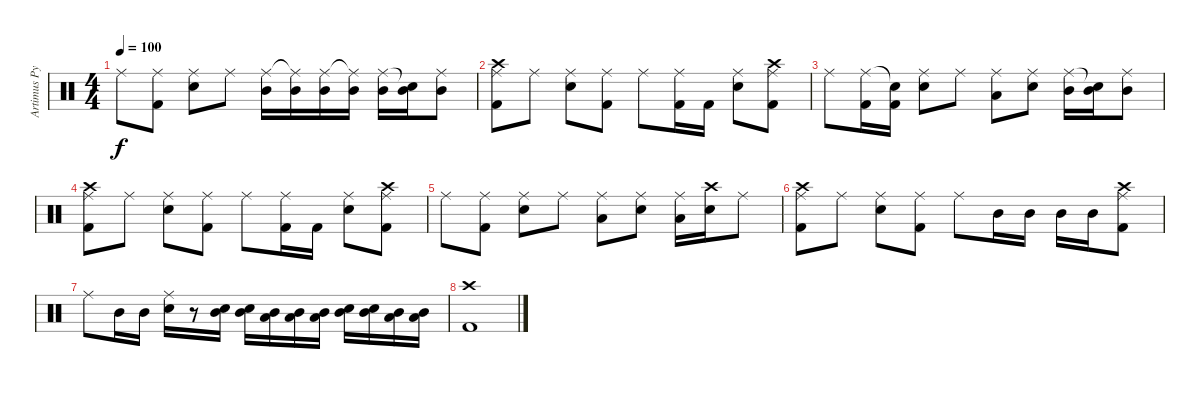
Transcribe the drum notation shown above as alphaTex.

\track ("Artimus Pyle " "Artimus Py") {instrument percussion}
\staff {score}
\articulation defaults
\ts (4 4)
\tempo 100
\clef neutral
\ks c "Ride (middle)".8{dy f}
("Ride (middle)" "Kick (hit) 2").8 ("Ride (middle)" "Electric Snare (hit)").8 "Ride (middle)".8 ("Ride (middle)" "Mid Tom (hit)").16 ("Ride (middle)"{t} "Mid Tom (hit)").16 ("Ride (middle)" "Mid Tom (hit)").16 ("Ride (middle)"{t} "Mid Tom (hit)").16 ("Ride (middle)" "Mid Tom (hit)").16 ("Snare (hit)"{t} "Mid Tom (hit)").16 ("Ride (middle)" "Mid Tom (hit)").8 |
("Crash high (hit)" "Ride (middle)" "Kick (hit) 2").8 "Ride (middle)".8 ("Ride (middle)" "Electric Snare (hit)").8 ("Ride (middle)" "Kick (hit) 2").8 "Ride (middle)".8 ("Ride (middle)" "Kick (hit) 2").16 "Kick (hit) 2".16 ("Ride (middle)" "Electric Snare (hit)").8 ("Crash high (hit)" "Ride (middle)" "Kick (hit) 2").8 |
"Ride (middle)".8 ("Ride (middle)" "Kick (hit) 2").16 ("Snare (hit)"{t} "Kick (hit) 2").16 ("Ride (middle)" "Electric Snare (hit)").8 "Ride (middle)".8 ("Ride (middle)" "Low Tom (hit)").8 ("Ride (middle)" "Electric Snare (hit)").8 ("Ride (middle)" "Mid Tom (hit)").16 ("Snare (hit)"{t} "Mid Tom (hit)").16 ("Ride (middle)" "Mid Tom (hit)").8 |
("Crash high (hit)" "Ride (middle)" "Kick (hit) 2").8 "Ride (middle)".8 ("Ride (middle)" "Electric Snare (hit)").8 ("Ride (middle)" "Kick (hit) 2").8 "Ride (middle)".8 ("Ride (middle)" "Kick (hit) 2").16 "Kick (hit) 2".16 ("Ride (middle)" "Electric Snare (hit)").8 ("Crash high (hit)" "Ride (middle)" "Kick (hit) 2").8 |
"Ride (middle)".8 ("Ride (middle)" "Kick (hit) 2").8 ("Ride (middle)" "Electric Snare (hit)").8 "Ride (middle)".8 ("Ride (middle)" "Low Tom (hit)").8 ("Ride (middle)" "Electric Snare (hit)").8 ("Ride (middle)" "Low Tom (hit)").16 ("Crash high (hit)" "Electric Snare (hit)").16 "Ride (middle)".8 |
("Crash high (hit)" "Ride (middle)" "Kick (hit) 2").8 "Ride (middle)".8 ("Ride (middle)" "Electric Snare (hit)").8 ("Ride (middle)" "Kick (hit) 2").8 "Ride (middle)".8 "Mid Tom (hit)".16 "Mid Tom (hit)".16 "Mid Tom (hit)".16 "Mid Tom (hit)".16 ("Crash high (hit)" "Ride (middle)" "Kick (hit) 2").8 |
"Ride (middle)".8 "Mid Tom (hit)".16 "Mid Tom (hit)".16 ("Ride (middle)" "Electric Snare (hit)").16 r.8 ("Electric Snare (hit)" "Mid Tom (hit)").16 ("Electric Snare (hit)" "Mid Tom (hit)").16 ("Low Tom (hit)" "Mid Tom (hit)").16 ("Low Tom (hit)" "Mid Tom (hit)").16 ("Low Tom (hit)" "Mid Tom (hit)").16 ("Electric Snare (hit)" "Mid Tom (hit)").16 ("Electric Snare (hit)" "Mid Tom (hit)").16 ("Low Tom (hit)" "Mid Tom (hit)").16 ("Low Tom (hit)" "Mid Tom (hit)").16 |
("Crash high (hit)" "Kick (hit) 2").1
